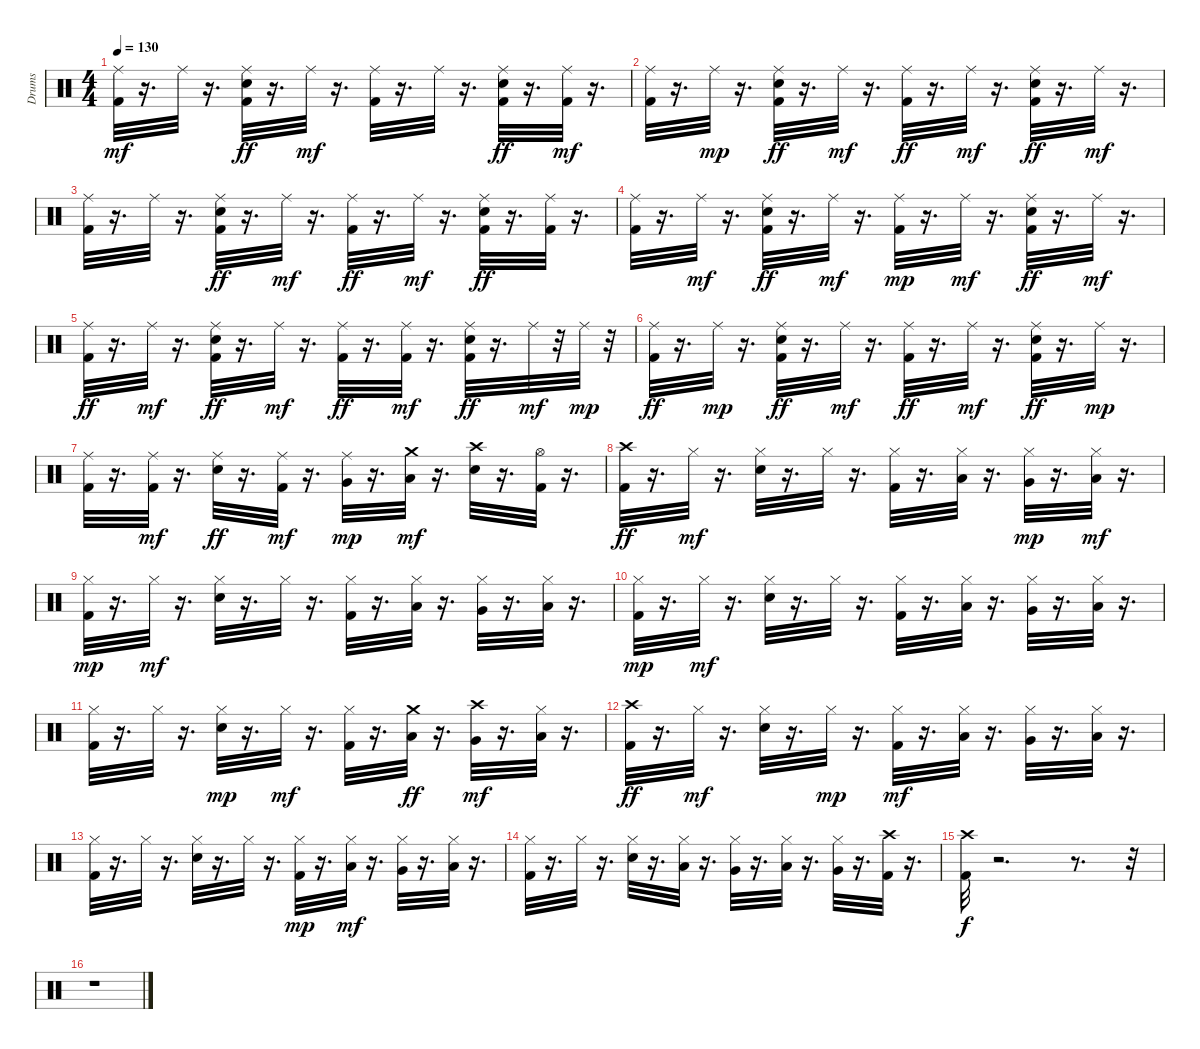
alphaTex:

\track ("Drums" "Drums") {instrument percussion}
\staff {score}
\articulation defaults
\ts (4 4)
\tempo 130
\clef neutral
\ks c
("Ride (middle)" "Kick (hit) 2").32{dy mf} r.16{d} "Ride (middle)".32 r.16{d} ("Ride (middle)" "Kick (hit) 2" "Electric Snare (hit)").32{dy ff} r.16{d} "Ride (middle)".32{dy mf} r.16{d} ("Ride (middle)" "Kick (hit) 2").32 r.16{d} "Ride (middle)".32 r.16{d} ("Ride (middle)" "Kick (hit) 2" "Electric Snare (hit)").32{dy ff} r.16{d} ("Ride (middle)" "Kick (hit) 2").32{dy mf} r.16{d} |
("Ride (middle)" "Kick (hit) 2").32 r.16{d} "Ride (middle)".32{dy mp} r.16{d} ("Ride (middle)" "Kick (hit) 2" "Electric Snare (hit)").32{dy ff} r.16{d} "Ride (middle)".32{dy mf} r.16{d} ("Ride (middle)" "Kick (hit) 2").32{dy ff} r.16{d} "Ride (middle)".32{dy mf} r.16{d} ("Ride (middle)" "Kick (hit) 2" "Electric Snare (hit)").32{dy ff} r.16{d} "Ride (middle)".32{dy mf} r.16{d} |
("Ride (middle)" "Kick (hit) 2").32 r.16{d} "Ride (middle)".32 r.16{d} ("Ride (middle)" "Kick (hit) 2" "Electric Snare (hit)").32{dy ff} r.16{d} "Ride (middle)".32{dy mf} r.16{d} ("Ride (middle)" "Kick (hit) 2").32{dy ff} r.16{d} "Ride (middle)".32{dy mf} r.16{d} ("Ride (middle)" "Kick (hit) 2" "Electric Snare (hit)").32{dy ff} r.16{d} ("Ride (middle)" "Kick (hit) 2").32 r.16{d} |
("Ride (middle)" "Kick (hit) 2").32 r.16{d} "Ride (middle)".32{dy mf} r.16{d} ("Ride (middle)" "Kick (hit) 2" "Electric Snare (hit)").32{dy ff} r.16{d} "Ride (middle)".32{dy mf} r.16{d} ("Ride (middle)" "Kick (hit) 2").32{dy mp} r.16{d} "Ride (middle)".32{dy mf} r.16{d} ("Ride (middle)" "Kick (hit) 2" "Electric Snare (hit)").32{dy ff} r.16{d} "Ride (middle)".32{dy mf} r.16{d} |
("Ride (middle)" "Kick (hit) 2").32{dy ff} r.16{d} "Ride (middle)".32{dy mf} r.16{d} ("Ride (middle)" "Kick (hit) 2" "Electric Snare (hit)").32{dy ff} r.16{d} "Ride (middle)".32{dy mf} r.16{d} ("Ride (middle)" "Kick (hit) 2").32{dy ff} r.16{d} ("Ride (middle)" "Kick (hit) 2").32{dy mf} r.16{d} ("Ride (middle)" "Kick (hit) 2" "Electric Snare (hit)").32{dy ff} r.16{d} "Ride (middle)".32{dy mf} r.32 "Ride (middle)".32{dy mp} r.32 |
("Ride (middle)" "Kick (hit) 2").32{dy ff} r.16{d} "Ride (middle)".32{dy mp} r.16{d} ("Ride (middle)" "Kick (hit) 2" "Electric Snare (hit)").32{dy ff} r.16{d} "Ride (middle)".32{dy mf} r.16{d} ("Ride (middle)" "Kick (hit) 2").32{dy ff} r.16{d} "Ride (middle)".32{dy mf} r.16{d} ("Ride (middle)" "Kick (hit) 2" "Electric Snare (hit)").32{dy ff} r.16{d} "Ride (middle)".32{dy mp} r.16{d} |
("Ride (middle)" "Kick (hit) 2").32 r.16{d} ("Ride (middle)" "Kick (hit) 2").32{dy mf} r.16{d} ("Ride (middle)" "Electric Snare (hit)").32{dy ff} r.16{d} ("Ride (middle)" "Kick (hit) 2").32{dy mf} r.16{d} ("Ride (middle)" "Very Low Tom (hit)").32{dy mp} r.16{d} ("Low Floor Tom (hit)" "Crash medium (hit)").32{dy mf} r.16{d} ("Electric Snare (hit)" "Crash high (hit)").32 r.16{d} ("Kick (hit) 2" "Hi-Hat (open)").32 r.16{d} |
("Kick (hit) 2" "Crash high (hit)").32{dy ff} r.16{d} "Hi-Hat (closed)".32{dy mf} r.16{d} ("Electric Snare (hit)" "Hi-Hat (closed)").32 r.16{d} "Hi-Hat (closed)".32 r.16{d} ("Kick (hit) 2" "Hi-Hat (closed)").32 r.16{d} ("Low Tom (hit)" "Hi-Hat (closed)").32 r.16{d} ("Very Low Tom (hit)" "Hi-Hat (closed)").32{dy mp} r.16{d} ("Low Floor Tom (hit)" "Hi-Hat (closed)").32{dy mf} r.16{d} |
("Kick (hit) 2" "Hi-Hat (closed)").32{dy mp} r.16{d} "Hi-Hat (closed)".32{dy mf} r.16{d} ("Electric Snare (hit)" "Hi-Hat (closed)").32 r.16{d} "Hi-Hat (closed)".32 r.16{d} ("Kick (hit) 2" "Hi-Hat (closed)").32 r.16{d} ("Low Tom (hit)" "Hi-Hat (closed)").32 r.16{d} ("Very Low Tom (hit)" "Hi-Hat (closed)").32 r.16{d} ("Low Floor Tom (hit)" "Hi-Hat (closed)").32 r.16{d} |
("Kick (hit) 2" "Hi-Hat (closed)").32{dy mp} r.16{d} "Hi-Hat (closed)".32{dy mf} r.16{d} ("Electric Snare (hit)" "Hi-Hat (closed)").32 r.16{d} "Hi-Hat (closed)".32 r.16{d} ("Kick (hit) 2" "Hi-Hat (closed)").32 r.16{d} ("Low Tom (hit)" "Hi-Hat (closed)").32 r.16{d} ("Very Low Tom (hit)" "Hi-Hat (closed)").32 r.16{d} ("Low Floor Tom (hit)" "Hi-Hat (closed)").32 r.16{d} |
("Kick (hit) 2" "Hi-Hat (closed)").32 r.16{d} "Hi-Hat (closed)".32 r.16{d} ("Electric Snare (hit)" "Hi-Hat (closed)").32{dy mp} r.16{d} "Hi-Hat (closed)".32{dy mf} r.16{d} ("Kick (hit) 2" "Hi-Hat (closed)").32 r.16{d} ("Low Tom (hit)" "Crash medium (hit)").32{dy ff} r.16{d} ("Very Low Tom (hit)" "Crash high (hit)").32{dy mf} r.16{d} ("Low Floor Tom (hit)" "Hi-Hat (closed)").32 r.16{d} |
("Kick (hit) 2" "Crash high (hit)").32{dy ff} r.16{d} "Hi-Hat (closed)".32{dy mf} r.16{d} ("Electric Snare (hit)" "Hi-Hat (closed)").32 r.16{d} "Hi-Hat (closed)".32{dy mp} r.16{d} ("Kick (hit) 2" "Hi-Hat (closed)").32{dy mf} r.16{d} ("Low Tom (hit)" "Hi-Hat (closed)").32 r.16{d} ("Very Low Tom (hit)" "Hi-Hat (closed)").32 r.16{d} ("Low Floor Tom (hit)" "Hi-Hat (closed)").32 r.16{d} |
("Kick (hit) 2" "Hi-Hat (closed)").32 r.16{d} "Hi-Hat (closed)".32 r.16{d} ("Electric Snare (hit)" "Hi-Hat (closed)").32 r.16{d} "Hi-Hat (closed)".32 r.16{d} ("Kick (hit) 2" "Hi-Hat (closed)").32{dy mp} r.16{d} ("Low Tom (hit)" "Hi-Hat (closed)").32{dy mf} r.16{d} ("Very Low Tom (hit)" "Hi-Hat (closed)").32 r.16{d} ("Low Floor Tom (hit)" "Hi-Hat (closed)").32 r.16{d} |
("Kick (hit) 2" "Hi-Hat (closed)").32 r.16{d} "Hi-Hat (closed)".32 r.16{d} ("Electric Snare (hit)" "Hi-Hat (closed)").32 r.16{d} ("Low Tom (hit)" "Hi-Hat (closed)").32 r.16{d} ("Very Low Tom (hit)" "Hi-Hat (closed)").32 r.16{d} ("Low Tom (hit)" "Hi-Hat (closed)").32 r.16{d} ("Very Low Tom (hit)" "Hi-Hat (closed)").32 r.16{d} ("Kick (hit) 2" "Crash high (hit)").32 r.16{d} |
("Kick (hit) 2" "Crash high (hit)").32{dy f} r.2{d} r.8{d} r.32 |
r.1
